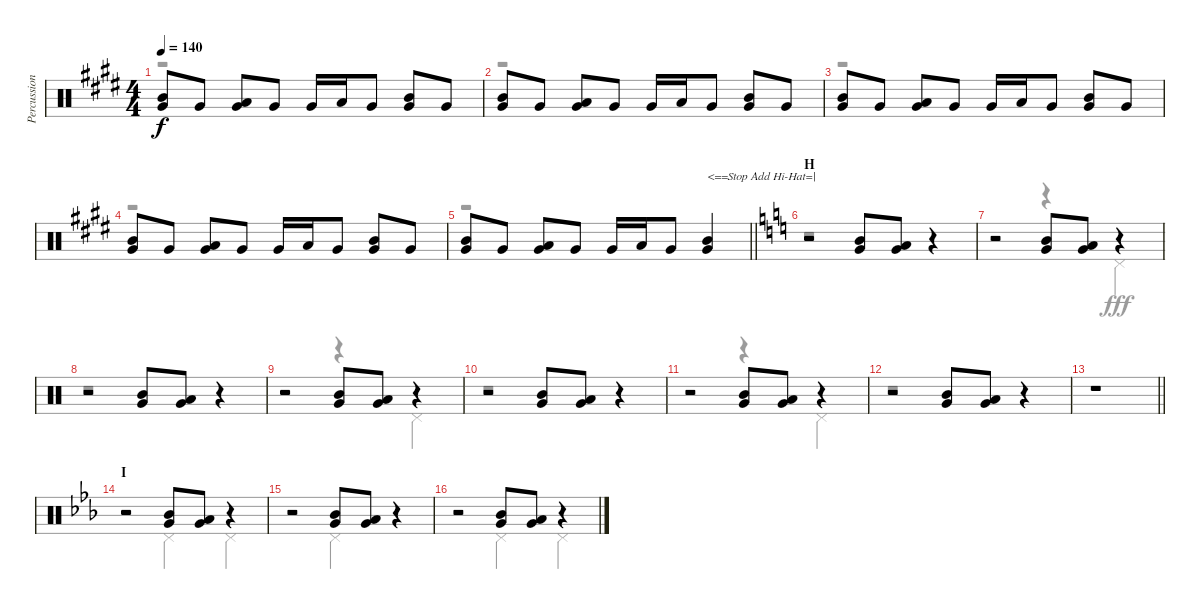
\track ("Percussion" "Percussion") {instrument percussion}
\staff {score}
\articulation defaults
\voice
\ts (4 4)
\tempo 140
\clef neutral
\ks e
("Mid Tom (hit)" "Very Low Tom (hit)").8{dy f} "Very Low Tom (hit)".8 ("Low Tom (hit)" "Very Low Tom (hit)").8 "Very Low Tom (hit)".8 "Very Low Tom (hit)".16 "Low Tom (hit)".16 "Very Low Tom (hit)".8 ("Mid Tom (hit)" "Very Low Tom (hit)").8 "Very Low Tom (hit)".8 |
("Mid Tom (hit)" "Very Low Tom (hit)").8 "Very Low Tom (hit)".8 ("Low Tom (hit)" "Very Low Tom (hit)").8 "Very Low Tom (hit)".8 "Very Low Tom (hit)".16 "Low Tom (hit)".16 "Very Low Tom (hit)".8 ("Mid Tom (hit)" "Very Low Tom (hit)").8 "Very Low Tom (hit)".8 |
("Mid Tom (hit)" "Very Low Tom (hit)").8 "Very Low Tom (hit)".8 ("Low Tom (hit)" "Very Low Tom (hit)").8 "Very Low Tom (hit)".8 "Very Low Tom (hit)".16 "Low Tom (hit)".16 "Very Low Tom (hit)".8 ("Mid Tom (hit)" "Very Low Tom (hit)").8 "Very Low Tom (hit)".8 |
("Mid Tom (hit)" "Very Low Tom (hit)").8 "Very Low Tom (hit)".8 ("Low Tom (hit)" "Very Low Tom (hit)").8 "Very Low Tom (hit)".8 "Very Low Tom (hit)".16 "Low Tom (hit)".16 "Very Low Tom (hit)".8 ("Mid Tom (hit)" "Very Low Tom (hit)").8 "Very Low Tom (hit)".8 |
\barLineRight lightlight
("Mid Tom (hit)" "Very Low Tom (hit)").8 "Very Low Tom (hit)".8 ("Low Tom (hit)" "Very Low Tom (hit)").8 "Very Low Tom (hit)".8 "Very Low Tom (hit)".16 "Low Tom (hit)".16 "Very Low Tom (hit)".8 ("Mid Tom (hit)" "Very Low Tom (hit)").4{txt "<==Stop Add Hi-Hat=|"} |
\section ("" "H")
\ks c
r.2 ("Mid Tom (hit)" "Very Low Tom (hit)").8 ("Low Tom (hit)" "Very Low Tom (hit)").8 r.4 |
r.2 ("Mid Tom (hit)" "Very Low Tom (hit)").8 ("Low Tom (hit)" "Very Low Tom (hit)").8 r.4 |
r.2 ("Mid Tom (hit)" "Very Low Tom (hit)").8 ("Low Tom (hit)" "Very Low Tom (hit)").8 r.4 |
r.2 ("Mid Tom (hit)" "Very Low Tom (hit)").8 ("Low Tom (hit)" "Very Low Tom (hit)").8 r.4 |
r.2 ("Mid Tom (hit)" "Very Low Tom (hit)").8 ("Low Tom (hit)" "Very Low Tom (hit)").8 r.4 |
r.2 ("Mid Tom (hit)" "Very Low Tom (hit)").8 ("Low Tom (hit)" "Very Low Tom (hit)").8 r.4 |
r.2 ("Mid Tom (hit)" "Very Low Tom (hit)").8 ("Low Tom (hit)" "Very Low Tom (hit)").8 r.4 |
\barLineRight lightlight
r.1 |
\section ("" "I")
\ks eb
r.2 ("Mid Tom (hit)" "Very Low Tom (hit)").8 ("Low Tom (hit)" "Very Low Tom (hit)").8 r.4 |
r.2 ("Mid Tom (hit)" "Very Low Tom (hit)").8 ("Low Tom (hit)" "Very Low Tom (hit)").8 r.4 |
r.2 ("Mid Tom (hit)" "Very Low Tom (hit)").8 ("Low Tom (hit)" "Very Low Tom (hit)").8 r.4
\voice
\clef neutral
\ottava regular
\simile none
\ks e
r.1{dy fff} |
r.1 |
r.1 |
r.1 |
\barLineRight lightlight
r.1 |
\ks c
r.1 |
r.2 r.4 "Pedal Hi-Hat (hit)".4 |
r.1 |
r.2 r.4 "Pedal Hi-Hat (hit)".4 |
r.1 |
r.2 r.4 "Pedal Hi-Hat (hit)".4 |
r.1 |
\barLineRight lightlight
r.1 |
\ks eb
r.2 "Pedal Hi-Hat (hit)".4 "Pedal Hi-Hat (hit)".4 |
r.2 "Pedal Hi-Hat (hit)".4 r.4 |
r.2 "Pedal Hi-Hat (hit)".4 "Pedal Hi-Hat (hit)".4
